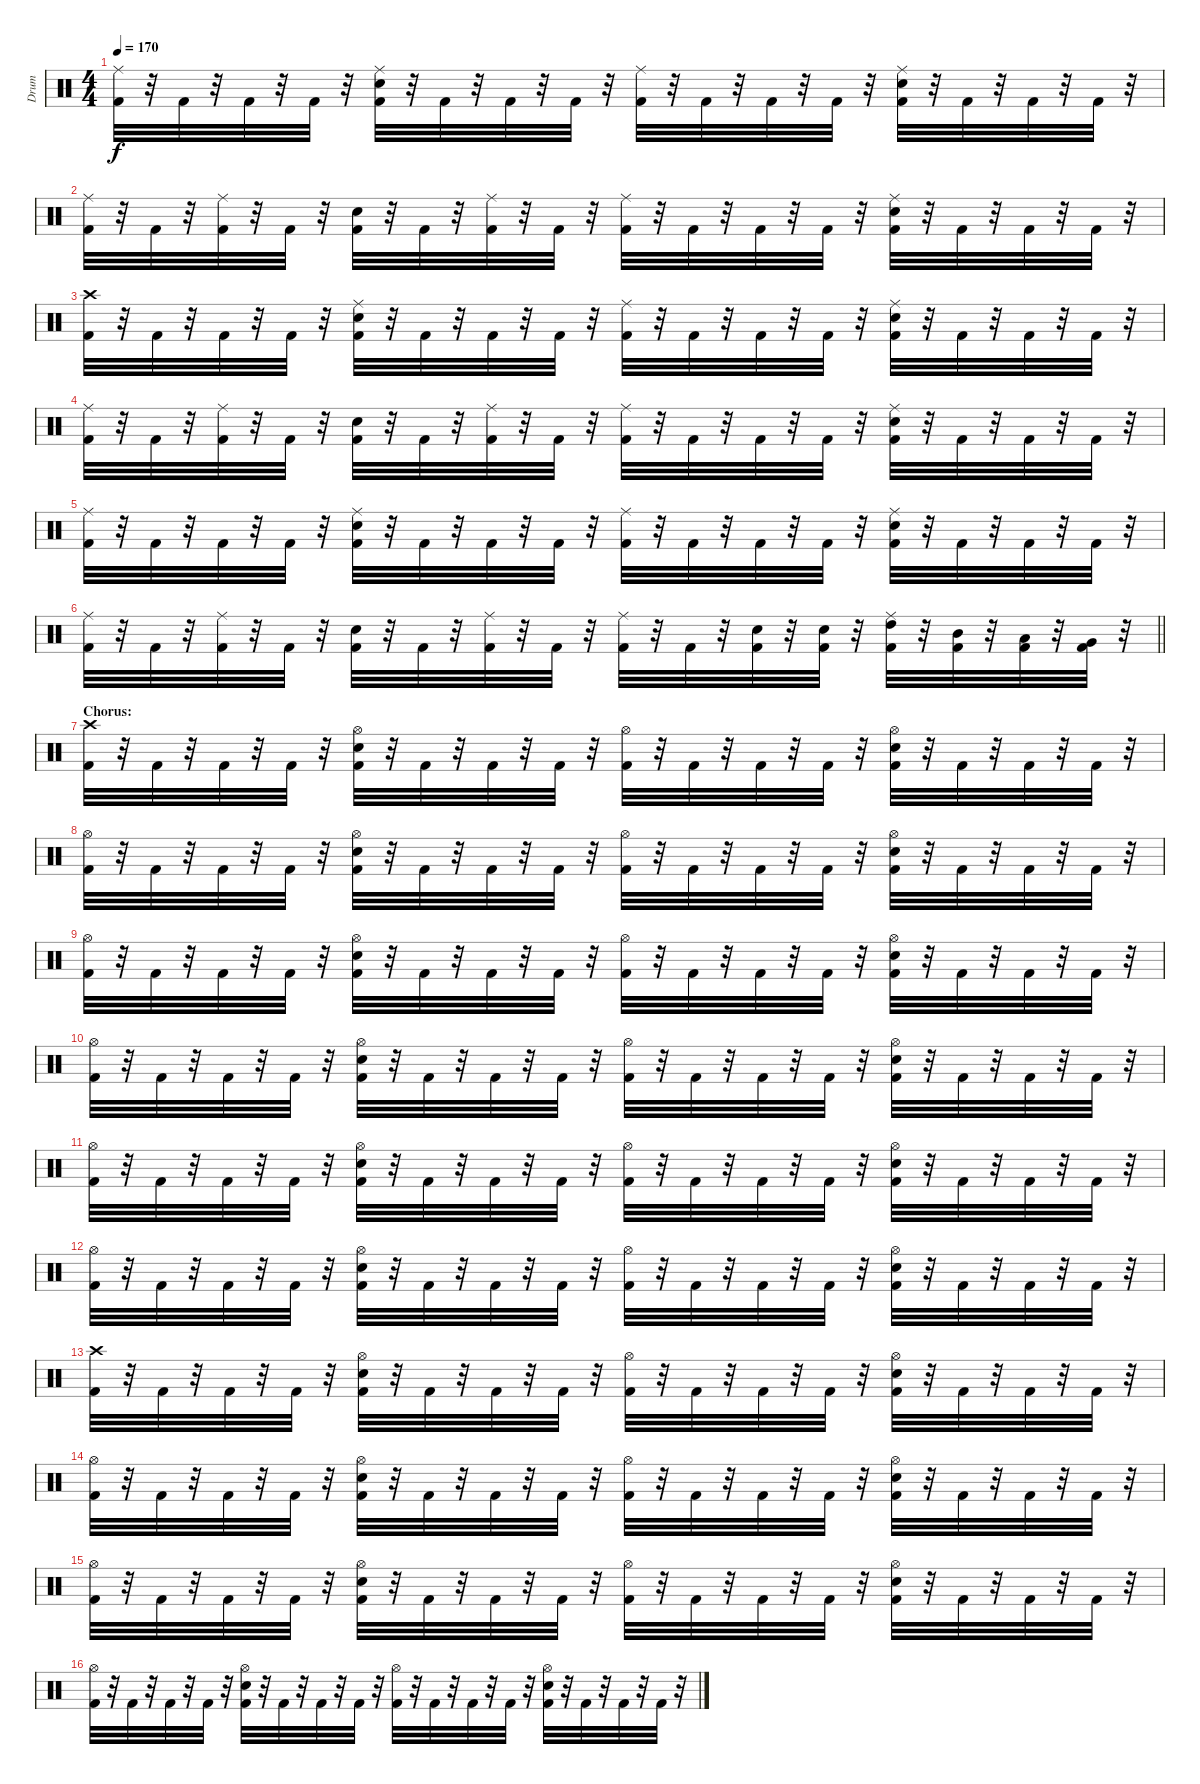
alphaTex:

\track ("Drum" "Drum") {instrument percussion}
\staff {score}
\articulation defaults
\ts (4 4)
\tempo 170
\clef neutral
\ks c
("Ride (middle)" "Kick (hit) 2").32{dy f} r.32 "Kick (hit) 2".32 r.32 "Kick (hit) 2".32 r.32 "Kick (hit) 2".32 r.32 ("Snare (hit) 2" "Ride (middle)" "Kick (hit) 2").32 r.32 "Kick (hit) 2".32 r.32 "Kick (hit) 2".32 r.32 "Kick (hit) 2".32 r.32 ("Ride (middle)" "Kick (hit) 2").32 r.32 "Kick (hit) 2".32 r.32 "Kick (hit) 2".32 r.32 "Kick (hit) 2".32 r.32 ("Snare (hit) 2" "Ride (middle)" "Kick (hit) 2").32 r.32 "Kick (hit) 2".32 r.32 "Kick (hit) 2".32 r.32 "Kick (hit) 2".32 r.32 |
("Ride (middle)" "Kick (hit) 2").32 r.32 "Kick (hit) 2".32 r.32 ("Ride (middle)" "Kick (hit) 2").32 r.32 "Kick (hit) 2".32 r.32 ("Snare (hit) 2" "Kick (hit) 2").32 r.32 "Kick (hit) 2".32 r.32 ("Ride (middle)" "Kick (hit) 2").32 r.32 "Kick (hit) 2".32 r.32 ("Ride (middle)" "Kick (hit) 2").32 r.32 "Kick (hit) 2".32 r.32 "Kick (hit) 2".32 r.32 "Kick (hit) 2".32 r.32 ("Snare (hit) 2" "Ride (middle)" "Kick (hit) 2").32 r.32 "Kick (hit) 2".32 r.32 "Kick (hit) 2".32 r.32 "Kick (hit) 2".32 r.32 |
("Crash high (hit)" "Kick (hit) 2").32 r.32 "Kick (hit) 2".32 r.32 "Kick (hit) 2".32 r.32 "Kick (hit) 2".32 r.32 ("Snare (hit) 2" "Ride (middle)" "Kick (hit) 2").32 r.32 "Kick (hit) 2".32 r.32 "Kick (hit) 2".32 r.32 "Kick (hit) 2".32 r.32 ("Ride (middle)" "Kick (hit) 2").32 r.32 "Kick (hit) 2".32 r.32 "Kick (hit) 2".32 r.32 "Kick (hit) 2".32 r.32 ("Snare (hit) 2" "Ride (middle)" "Kick (hit) 2").32 r.32 "Kick (hit) 2".32 r.32 "Kick (hit) 2".32 r.32 "Kick (hit) 2".32 r.32 |
("Ride (middle)" "Kick (hit) 2").32 r.32 "Kick (hit) 2".32 r.32 ("Ride (middle)" "Kick (hit) 2").32 r.32 "Kick (hit) 2".32 r.32 ("Snare (hit) 2" "Kick (hit) 2").32 r.32 "Kick (hit) 2".32 r.32 ("Ride (middle)" "Kick (hit) 2").32 r.32 "Kick (hit) 2".32 r.32 ("Ride (middle)" "Kick (hit) 2").32 r.32 "Kick (hit) 2".32 r.32 "Kick (hit) 2".32 r.32 "Kick (hit) 2".32 r.32 ("Snare (hit) 2" "Ride (middle)" "Kick (hit) 2").32 r.32 "Kick (hit) 2".32 r.32 "Kick (hit) 2".32 r.32 "Kick (hit) 2".32 r.32 |
("Ride (middle)" "Kick (hit) 2").32 r.32 "Kick (hit) 2".32 r.32 "Kick (hit) 2".32 r.32 "Kick (hit) 2".32 r.32 ("Snare (hit) 2" "Ride (middle)" "Kick (hit) 2").32 r.32 "Kick (hit) 2".32 r.32 "Kick (hit) 2".32 r.32 "Kick (hit) 2".32 r.32 ("Ride (middle)" "Kick (hit) 2").32 r.32 "Kick (hit) 2".32 r.32 "Kick (hit) 2".32 r.32 "Kick (hit) 2".32 r.32 ("Snare (hit) 2" "Ride (middle)" "Kick (hit) 2").32 r.32 "Kick (hit) 2".32 r.32 "Kick (hit) 2".32 r.32 "Kick (hit) 2".32 r.32 |
\barLineRight lightlight
("Ride (middle)" "Kick (hit) 2").32 r.32 "Kick (hit) 2".32 r.32 ("Ride (middle)" "Kick (hit) 2").32 r.32 "Kick (hit) 2".32 r.32 ("Snare (hit) 2" "Kick (hit) 2").32 r.32 "Kick (hit) 2".32 r.32 ("Ride (middle)" "Kick (hit) 2").32 r.32 "Kick (hit) 2".32 r.32 ("Ride (middle)" "Kick (hit) 2").32 r.32 "Kick (hit) 2".32 r.32 ("Snare (hit) 2" "Kick (hit) 2").32 r.32 ("Snare (hit) 2" "Kick (hit) 2").32 r.32 ("High Tom (hit)" "Ride (middle)" "Kick (hit) 2").32 r.32 ("Mid Tom (hit)" "Kick (hit) 2").32 r.32 ("Low Tom (hit)" "Kick (hit) 2").32 r.32 ("Very Low Tom (hit)" "Kick (hit) 2").32 r.32 |
\section ("" "Chorus:")
("Crash high (hit)" "Kick (hit) 2").32 r.32 "Kick (hit) 2".32 r.32 "Kick (hit) 2".32 r.32 "Kick (hit) 2".32 r.32 ("Hi-Hat (open)" "Snare (hit) 2" "Kick (hit) 2").32 r.32 "Kick (hit) 2".32 r.32 "Kick (hit) 2".32 r.32 "Kick (hit) 2".32 r.32 ("Hi-Hat (open)" "Kick (hit) 2").32 r.32 "Kick (hit) 2".32 r.32 "Kick (hit) 2".32 r.32 "Kick (hit) 2".32 r.32 ("Hi-Hat (open)" "Snare (hit) 2" "Kick (hit) 2").32 r.32 "Kick (hit) 2".32 r.32 "Kick (hit) 2".32 r.32 "Kick (hit) 2".32 r.32 |
("Hi-Hat (open)" "Kick (hit) 2").32 r.32 "Kick (hit) 2".32 r.32 "Kick (hit) 2".32 r.32 "Kick (hit) 2".32 r.32 ("Snare (hit) 2" "Hi-Hat (open)" "Kick (hit) 2").32 r.32 "Kick (hit) 2".32 r.32 "Kick (hit) 2".32 r.32 "Kick (hit) 2".32 r.32 ("Hi-Hat (open)" "Kick (hit) 2").32 r.32 "Kick (hit) 2".32 r.32 "Kick (hit) 2".32 r.32 "Kick (hit) 2".32 r.32 ("Snare (hit) 2" "Hi-Hat (open)" "Kick (hit) 2").32 r.32 "Kick (hit) 2".32 r.32 "Kick (hit) 2".32 r.32 "Kick (hit) 2".32 r.32 |
("Hi-Hat (open)" "Kick (hit) 2").32 r.32 "Kick (hit) 2".32 r.32 "Kick (hit) 2".32 r.32 "Kick (hit) 2".32 r.32 ("Snare (hit) 2" "Hi-Hat (open)" "Kick (hit) 2").32 r.32 "Kick (hit) 2".32 r.32 "Kick (hit) 2".32 r.32 "Kick (hit) 2".32 r.32 ("Hi-Hat (open)" "Kick (hit) 2").32 r.32 "Kick (hit) 2".32 r.32 "Kick (hit) 2".32 r.32 "Kick (hit) 2".32 r.32 ("Snare (hit) 2" "Hi-Hat (open)" "Kick (hit) 2").32 r.32 "Kick (hit) 2".32 r.32 "Kick (hit) 2".32 r.32 "Kick (hit) 2".32 r.32 |
("Hi-Hat (open)" "Kick (hit) 2").32 r.32 "Kick (hit) 2".32 r.32 "Kick (hit) 2".32 r.32 "Kick (hit) 2".32 r.32 ("Hi-Hat (open)" "Snare (hit) 2" "Kick (hit) 2").32 r.32 "Kick (hit) 2".32 r.32 "Kick (hit) 2".32 r.32 "Kick (hit) 2".32 r.32 ("Hi-Hat (open)" "Kick (hit) 2").32 r.32 "Kick (hit) 2".32 r.32 "Kick (hit) 2".32 r.32 "Kick (hit) 2".32 r.32 ("Hi-Hat (open)" "Snare (hit) 2" "Kick (hit) 2").32 r.32 "Kick (hit) 2".32 r.32 "Kick (hit) 2".32 r.32 "Kick (hit) 2".32 r.32 |
("Hi-Hat (open)" "Kick (hit) 2").32 r.32 "Kick (hit) 2".32 r.32 "Kick (hit) 2".32 r.32 "Kick (hit) 2".32 r.32 ("Snare (hit) 2" "Hi-Hat (open)" "Kick (hit) 2").32 r.32 "Kick (hit) 2".32 r.32 "Kick (hit) 2".32 r.32 "Kick (hit) 2".32 r.32 ("Hi-Hat (open)" "Kick (hit) 2").32 r.32 "Kick (hit) 2".32 r.32 "Kick (hit) 2".32 r.32 "Kick (hit) 2".32 r.32 ("Snare (hit) 2" "Hi-Hat (open)" "Kick (hit) 2").32 r.32 "Kick (hit) 2".32 r.32 "Kick (hit) 2".32 r.32 "Kick (hit) 2".32 r.32 |
("Hi-Hat (open)" "Kick (hit) 2").32 r.32 "Kick (hit) 2".32 r.32 "Kick (hit) 2".32 r.32 "Kick (hit) 2".32 r.32 ("Hi-Hat (open)" "Snare (hit) 2" "Kick (hit) 2").32 r.32 "Kick (hit) 2".32 r.32 "Kick (hit) 2".32 r.32 "Kick (hit) 2".32 r.32 ("Hi-Hat (open)" "Kick (hit) 2").32 r.32 "Kick (hit) 2".32 r.32 "Kick (hit) 2".32 r.32 "Kick (hit) 2".32 r.32 ("Hi-Hat (open)" "Snare (hit) 2" "Kick (hit) 2").32 r.32 "Kick (hit) 2".32 r.32 "Kick (hit) 2".32 r.32 "Kick (hit) 2".32 r.32 |
("Crash high (hit)" "Kick (hit) 2").32 r.32 "Kick (hit) 2".32 r.32 "Kick (hit) 2".32 r.32 "Kick (hit) 2".32 r.32 ("Hi-Hat (open)" "Snare (hit) 2" "Kick (hit) 2").32 r.32 "Kick (hit) 2".32 r.32 "Kick (hit) 2".32 r.32 "Kick (hit) 2".32 r.32 ("Hi-Hat (open)" "Kick (hit) 2").32 r.32 "Kick (hit) 2".32 r.32 "Kick (hit) 2".32 r.32 "Kick (hit) 2".32 r.32 ("Hi-Hat (open)" "Snare (hit) 2" "Kick (hit) 2").32 r.32 "Kick (hit) 2".32 r.32 "Kick (hit) 2".32 r.32 "Kick (hit) 2".32 r.32 |
("Hi-Hat (open)" "Kick (hit) 2").32 r.32 "Kick (hit) 2".32 r.32 "Kick (hit) 2".32 r.32 "Kick (hit) 2".32 r.32 ("Snare (hit) 2" "Hi-Hat (open)" "Kick (hit) 2").32 r.32 "Kick (hit) 2".32 r.32 "Kick (hit) 2".32 r.32 "Kick (hit) 2".32 r.32 ("Hi-Hat (open)" "Kick (hit) 2").32 r.32 "Kick (hit) 2".32 r.32 "Kick (hit) 2".32 r.32 "Kick (hit) 2".32 r.32 ("Snare (hit) 2" "Hi-Hat (open)" "Kick (hit) 2").32 r.32 "Kick (hit) 2".32 r.32 "Kick (hit) 2".32 r.32 "Kick (hit) 2".32 r.32 |
("Hi-Hat (open)" "Kick (hit) 2").32 r.32 "Kick (hit) 2".32 r.32 "Kick (hit) 2".32 r.32 "Kick (hit) 2".32 r.32 ("Snare (hit) 2" "Hi-Hat (open)" "Kick (hit) 2").32 r.32 "Kick (hit) 2".32 r.32 "Kick (hit) 2".32 r.32 "Kick (hit) 2".32 r.32 ("Hi-Hat (open)" "Kick (hit) 2").32 r.32 "Kick (hit) 2".32 r.32 "Kick (hit) 2".32 r.32 "Kick (hit) 2".32 r.32 ("Snare (hit) 2" "Hi-Hat (open)" "Kick (hit) 2").32 r.32 "Kick (hit) 2".32 r.32 "Kick (hit) 2".32 r.32 "Kick (hit) 2".32 r.32 |
("Hi-Hat (open)" "Kick (hit) 2").32 r.32 "Kick (hit) 2".32 r.32 "Kick (hit) 2".32 r.32 "Kick (hit) 2".32 r.32 ("Hi-Hat (open)" "Snare (hit) 2" "Kick (hit) 2").32 r.32 "Kick (hit) 2".32 r.32 "Kick (hit) 2".32 r.32 "Kick (hit) 2".32 r.32 ("Hi-Hat (open)" "Kick (hit) 2").32 r.32 "Kick (hit) 2".32 r.32 "Kick (hit) 2".32 r.32 "Kick (hit) 2".32 r.32 ("Hi-Hat (open)" "Snare (hit) 2" "Kick (hit) 2").32 r.32 "Kick (hit) 2".32 r.32 "Kick (hit) 2".32 r.32 "Kick (hit) 2".32 r.32
